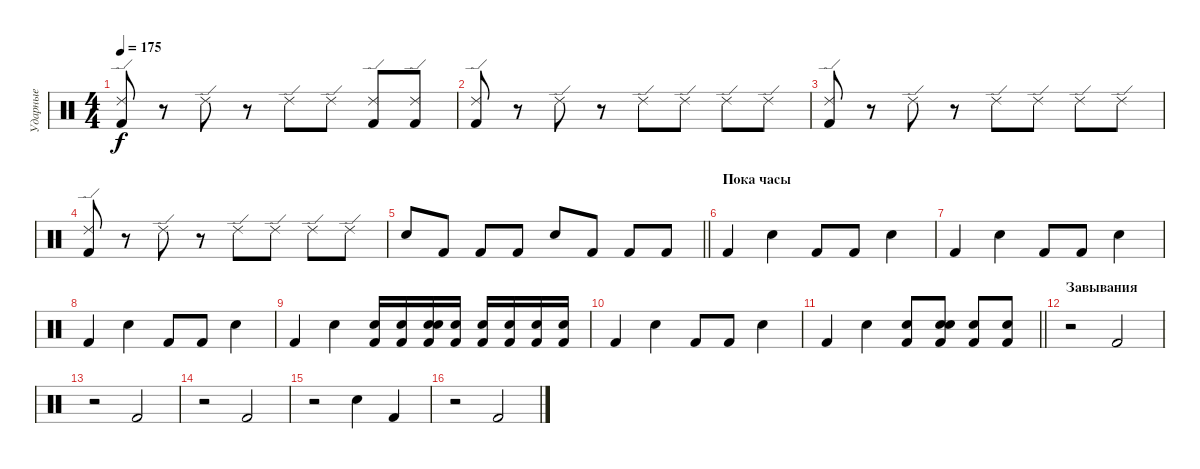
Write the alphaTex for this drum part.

\track ("Ударные" "Ударные") {instrument percussion}
\staff {score}
\articulation defaults
\ts (4 4)
\tempo 175
\clef neutral
\ks c
("Ride (edge) 2" "Kick (hit) 2").8{dy f} r.8 "Ride (edge) 2".8 r.8 "Ride (edge) 2".8 "Ride (edge) 2".8 ("Ride (edge) 2" "Kick (hit) 2").8 ("Ride (edge) 2" "Kick (hit) 2").8 |
("Ride (edge) 2" "Kick (hit) 2").8 r.8 "Ride (edge) 2".8 r.8 "Ride (edge) 2".8 "Ride (edge) 2".8 "Ride (edge) 2".8 "Ride (edge) 2".8 |
("Ride (edge) 2" "Kick (hit) 2").8 r.8 "Ride (edge) 2".8 r.8 "Ride (edge) 2".8 "Ride (edge) 2".8 "Ride (edge) 2".8 "Ride (edge) 2".8 |
("Ride (edge) 2" "Kick (hit) 2").8 r.8 "Ride (edge) 2".8 r.8 "Ride (edge) 2".8 "Ride (edge) 2".8 "Ride (edge) 2".8 "Ride (edge) 2".8 |
\barLineRight lightlight "Electric Snare (hit)".8 "Kick (hit) 2".8 "Kick (hit) 2".8 "Kick (hit) 2".8 "Electric Snare (hit)".8 "Kick (hit) 2".8 "Kick (hit) 2".8 "Kick (hit) 2".8
|
\section ("" "Пока часы")
"Kick (hit) 2".4 "Electric Snare (hit)".4 "Kick (hit) 2".8 "Kick (hit) 2".8 "Electric Snare (hit)".4 |
"Kick (hit) 2".4 "Electric Snare (hit)".4 "Kick (hit) 2".8 "Kick (hit) 2".8 "Electric Snare (hit)".4 |
"Kick (hit) 2".4 "Electric Snare (hit)".4 "Kick (hit) 2".8 "Kick (hit) 2".8 "Electric Snare (hit)".4 |
"Kick (hit) 2".4 "Electric Snare (hit)".4 ("Electric Snare (hit)" "Kick (hit) 2").16 ("Electric Snare (hit)" "Kick (hit) 2").16 ("Snare (hit) 2" "Electric Snare (hit)" "Kick (hit) 2").16 ("Electric Snare (hit)" "Kick (hit) 2").16 ("Electric Snare (hit)" "Kick (hit) 2").16 ("Electric Snare (hit)" "Kick (hit) 2").16 ("Electric Snare (hit)" "Kick (hit) 2").16 ("Electric Snare (hit)" "Kick (hit) 2").16 |
"Kick (hit) 2".4 "Electric Snare (hit)".4 "Kick (hit) 2".8 "Kick (hit) 2".8 "Electric Snare (hit)".4 |
\barLineRight lightlight "Kick (hit) 2".4 "Electric Snare (hit)".4
("Electric Snare (hit)" "Kick (hit) 2").8 ("Snare (hit) 2" "Electric Snare (hit)" "Kick (hit) 2").8 ("Electric Snare (hit)" "Kick (hit) 2").8 ("Electric Snare (hit)" "Kick (hit) 2").8 |
\section ("" "Завывания")
r.2 "Kick (hit) 2".2 |
r.2 "Kick (hit) 2".2 |
r.2 "Kick (hit) 2".2 |
r.2 "Electric Snare (hit)".4 "Kick (hit) 2".4 |
r.2 "Kick (hit) 2".2
